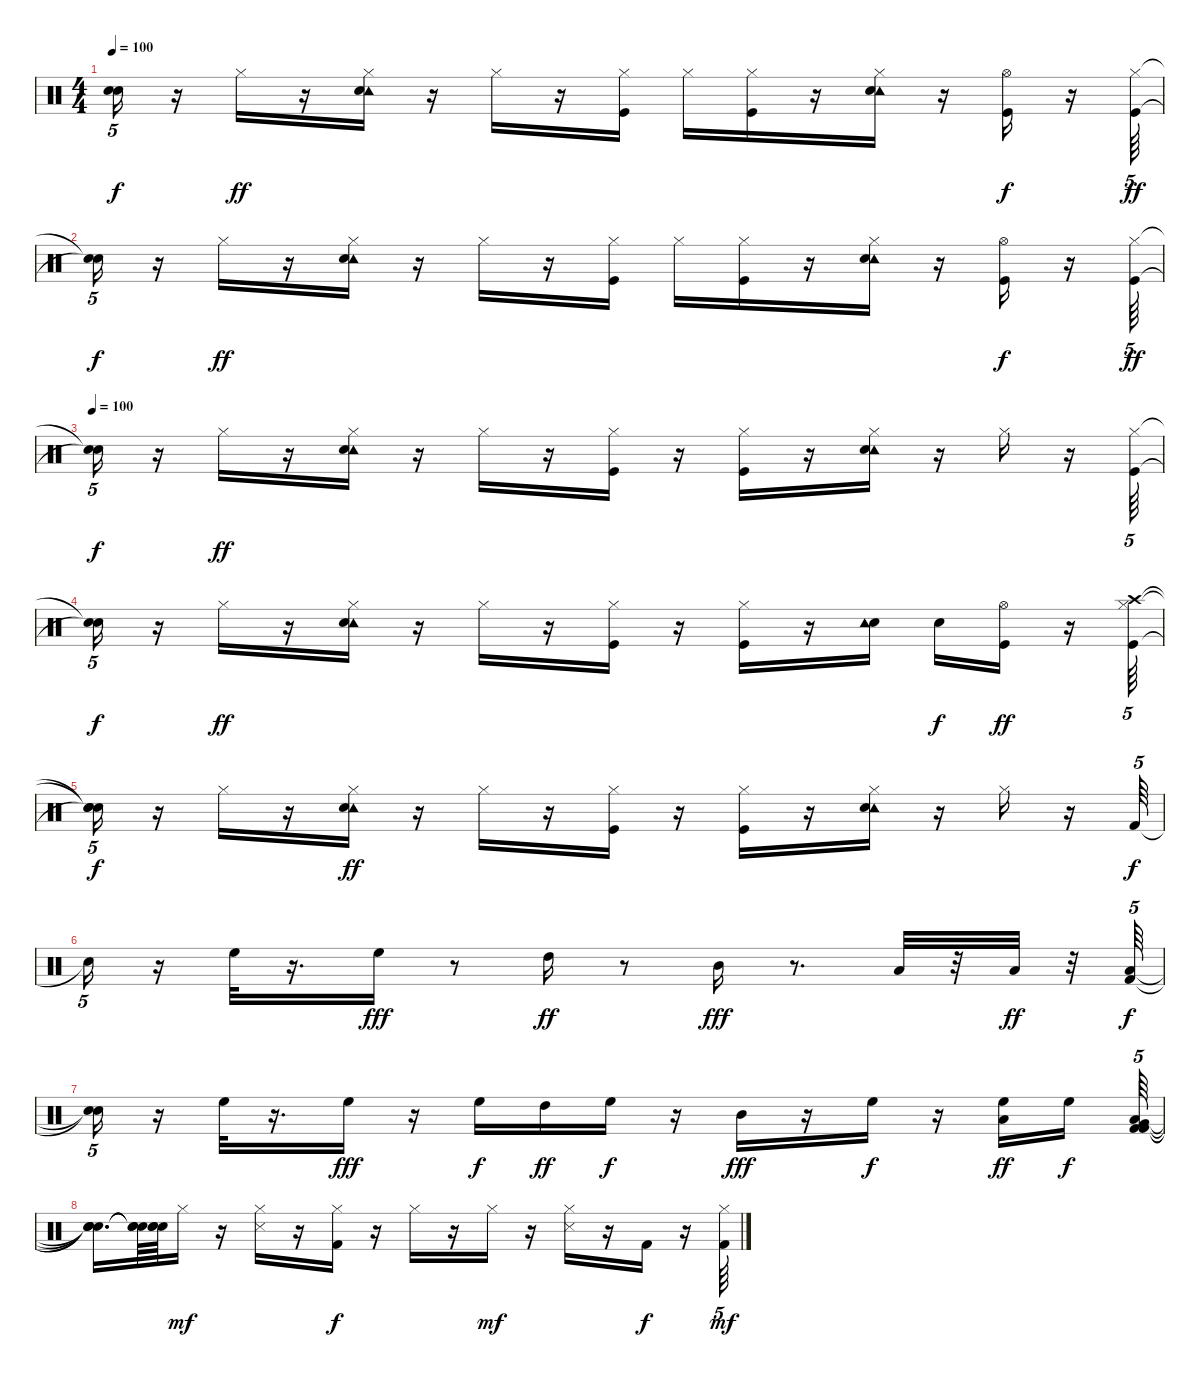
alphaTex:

\track "" {instrument percussion}
\staff {score}
\articulation defaults
\ts (4 4)
\tempo 100
\clef neutral
\ks c
("Snare (hit)"{t} "Snare (hit)"{t}).16{tu (5 4) dy f} r.16 "Hi-Hat (closed)".16{dy ff} r.16 ("Hi-Hat (closed)" "Tambourine (hit)" "Electric Snare (hit)").16 r.16 "Hi-Hat (closed)".16 r.16 ("Hi-Hat (closed)" "Kick (hit)").16 "Hi-Hat (closed)".16 ("Hi-Hat (closed)" "Kick (hit)").16 r.16 ("Hi-Hat (closed)" "Tambourine (hit)" "Electric Snare (hit)").16 r.16 ("Hi-Hat (open)" "Kick (hit)").16{dy f} r.16 ("Hi-Hat (closed)" "Kick (hit)").64{tu (5 4) dy ff} |
("Snare (hit)"{t} "Snare (hit)"{t}).16{tu (5 4) dy f} r.16 "Hi-Hat (closed)".16{dy ff} r.16 ("Hi-Hat (closed)" "Tambourine (hit)" "Electric Snare (hit)").16 r.16 "Hi-Hat (closed)".16 r.16 ("Hi-Hat (closed)" "Kick (hit)").16 "Hi-Hat (closed)".16 ("Hi-Hat (closed)" "Kick (hit)").16 r.16 ("Hi-Hat (closed)" "Tambourine (hit)" "Electric Snare (hit)").16 r.16 ("Hi-Hat (open)" "Kick (hit)").16{dy f} r.16 ("Hi-Hat (closed)" "Kick (hit)").64{tu (5 4) dy ff} |
\tempo 100
("Snare (hit)"{t} "Snare (hit)"{t}).16{tu (5 4) dy f} r.16 "Hi-Hat (closed)".16{dy ff} r.16 ("Hi-Hat (closed)" "Tambourine (hit)" "Electric Snare (hit)").16 r.16 "Hi-Hat (closed)".16 r.16 ("Hi-Hat (closed)" "Kick (hit)").16 r.16 ("Hi-Hat (closed)" "Kick (hit)").16 r.16 ("Hi-Hat (closed)" "Tambourine (hit)" "Electric Snare (hit)").16 r.16 "Hi-Hat (closed)".16 r.16 ("Hi-Hat (closed)" "Kick (hit)").64{tu (5 4)} |
("Snare (hit)"{t} "Snare (hit)"{t}).16{tu (5 4) dy f} r.16 "Hi-Hat (closed)".16{dy ff} r.16 ("Hi-Hat (closed)" "Tambourine (hit)" "Electric Snare (hit)").16 r.16 "Hi-Hat (closed)".16 r.16 ("Hi-Hat (closed)" "Kick (hit)").16 r.16 ("Hi-Hat (closed)" "Kick (hit)").16 r.16 ("Electric Snare (hit)" "Tambourine (hit)").16 "Electric Snare (hit)".16{dy f} ("Hi-Hat (open)" "Kick (hit)").16{dy ff} r.16 ("Crash high (hit)" "Hi-Hat (closed)" "Kick (hit)").64{tu (5 4)} |
("Snare (hit)"{t} "Snare (hit)"{t} "Snare (hit)"{t}).16{tu (5 4) dy f} r.16 "Hi-Hat (closed)".16 r.16 ("Hi-Hat (closed)" "Tambourine (hit)" "Electric Snare (hit)").16{dy ff} r.16 "Hi-Hat (closed)".16 r.16 ("Hi-Hat (closed)" "Kick (hit)").16 r.16 ("Hi-Hat (closed)" "Kick (hit)").16 r.16 ("Hi-Hat (closed)" "Tambourine (hit)" "Electric Snare (hit)").16 r.16 "Hi-Hat (closed)".16 r.16 "Kick (hit) 2".64{tu (5 4) dy f} |
"Snare (hit)"{t}.16{tu (5 4)} r.16 "High Floor Tom (hit)".32 r.16{d} "High Floor Tom (hit)".16{dy fff} r.8 "High Tom (hit)".16{dy ff} r.8 "Mid Tom (hit)".16{dy fff} r.8{d} "Low Tom (hit)".32 r.32 "Low Tom (hit)".32{dy ff} r.32 ("Low Floor Tom (hit)" "Kick (hit) 2").64{tu (5 4) dy f} |
("Snare (hit)"{t} "Snare (hit)"{t}).16{tu (5 4)} r.16 "High Floor Tom (hit)".32 r.16{d} "High Floor Tom (hit)".16{dy fff} r.16 "High Floor Tom (hit)".16{dy f} "High Tom (hit)".16{dy ff} "High Floor Tom (hit)".16{dy f} r.16 "Mid Tom (hit)".16{dy fff} r.16 "High Floor Tom (hit)".16{dy f} r.16 ("High Floor Tom (hit)" "Low Tom (hit)").16{dy ff} "High Floor Tom (hit)".16{dy f beam splitsecondary} ("Low Floor Tom (hit)" "Kick (hit) 2" "Kick (hit) 2" "Very Low Tom (hit)").64{tu (5 4)} |
("Snare (hit)"{t} "Snare (hit)"{t} "Snare (hit)"{t} "Snare (hit)"{t}).16{d} ("Snare (hit)"{t} "Snare (hit)"{t} "Snare (hit)"{t}).64 ("Snare (hit)"{t} "Snare (hit)"{t} "Snare (hit)"{t}).64 "Hi-Hat (closed)".16{dy mf} r.16 ("Hi-Hat (closed)" "Snare (side stick) 3").16 r.16 ("Kick (hit) 2" "Hi-Hat (closed)").16{dy f} r.16 "Hi-Hat (closed)".16 r.16 "Hi-Hat (closed)".16{dy mf} r.16 ("Hi-Hat (closed)" "Snare (side stick) 3").16 r.16 "Kick (hit) 2".16{dy f} r.16 ("Kick (hit) 2" "Hi-Hat (closed)").64{tu (5 4) dy mf}
